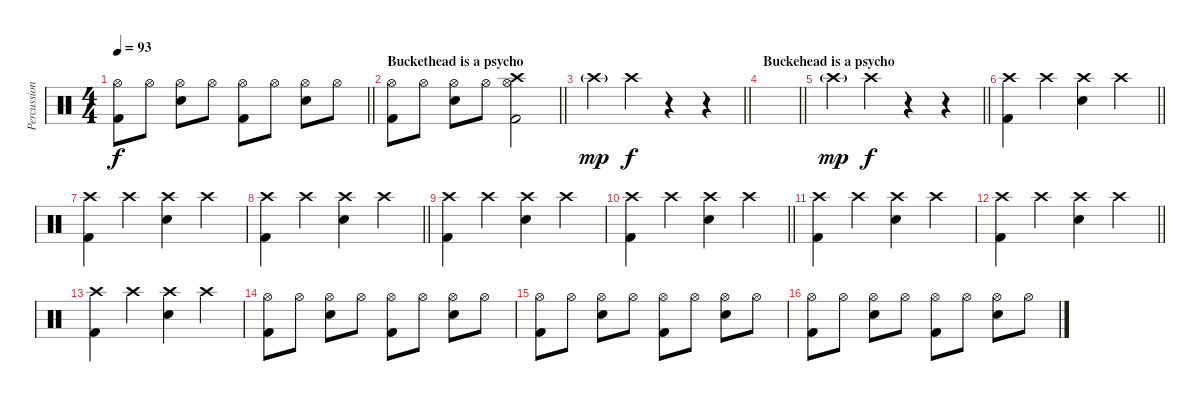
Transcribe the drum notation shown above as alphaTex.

\track ("Percussion" "Percussion") {instrument percussion}
\staff {score}
\articulation defaults
\ts (4 4)
\tempo 93
\clef neutral
\barLineRight lightlight
\ks c
("Kick (hit) 2" "Hi-Hat (open)").8{dy f} "Hi-Hat (open)".8 ("Electric Snare (hit)" "Hi-Hat (open)").8 "Hi-Hat (open)".8 ("Kick (hit) 2" "Hi-Hat (open)").8 "Hi-Hat (open)".8 ("Electric Snare (hit)" "Hi-Hat (open)").8 "Hi-Hat (open)".8 |
\section ("" "Buckethead is a psycho")
\barLineRight lightlight
("Kick (hit) 2" "Hi-Hat (open)").8 "Hi-Hat (open)".8 ("Electric Snare (hit)" "Hi-Hat (open)").8 "Hi-Hat (open)".8 ("Kick (hit) 2" "Crash high (hit)" "Hi-Hat (open)").2 |
\section ("" "")
\barLineRight lightlight "Crash high (hit)"{g}.4{dy mp} "Crash high (hit)".4{dy f}
r.4 r.4 |
\section ("" "Buckehead is a psycho")
\barLineRight lightlight
|
\section ("" "")
\barLineRight lightlight "Crash high (hit)"{g}.4{dy mp} "Crash high (hit)".4{dy f}
r.4 r.4 |
\barLineRight lightlight
("Kick (hit) 2" "Crash high (hit)").4 "Crash high (hit)".4 ("Electric Snare (hit)" "Crash high (hit)").4 "Crash high (hit)".4 |
("Kick (hit) 2" "Crash high (hit)").4 "Crash high (hit)".4 ("Electric Snare (hit)" "Crash high (hit)").4 "Crash high (hit)".4 |
\barLineRight lightlight
("Kick (hit) 2" "Crash high (hit)").4 "Crash high (hit)".4 ("Electric Snare (hit)" "Crash high (hit)").4 "Crash high (hit)".4 |
("Kick (hit) 2" "Crash high (hit)").4 "Crash high (hit)".4 ("Electric Snare (hit)" "Crash high (hit)").4 "Crash high (hit)".4 |
\barLineRight lightlight
("Kick (hit) 2" "Crash high (hit)").4 "Crash high (hit)".4 ("Electric Snare (hit)" "Crash high (hit)").4 "Crash high (hit)".4 |
("Kick (hit) 2" "Crash high (hit)").4 "Crash high (hit)".4 ("Electric Snare (hit)" "Crash high (hit)").4 "Crash high (hit)".4 |
\barLineRight lightlight
("Kick (hit) 2" "Crash high (hit)").4 "Crash high (hit)".4 ("Electric Snare (hit)" "Crash high (hit)").4 "Crash high (hit)".4 |
("Kick (hit) 2" "Crash high (hit)").4 "Crash high (hit)".4 ("Electric Snare (hit)" "Crash high (hit)").4 "Crash high (hit)".4 |
("Kick (hit) 2" "Hi-Hat (open)").8 "Hi-Hat (open)".8 ("Electric Snare (hit)" "Hi-Hat (open)").8 "Hi-Hat (open)".8 ("Kick (hit) 2" "Hi-Hat (open)").8 "Hi-Hat (open)".8 ("Electric Snare (hit)" "Hi-Hat (open)").8 "Hi-Hat (open)".8 |
("Kick (hit) 2" "Hi-Hat (open)").8 "Hi-Hat (open)".8 ("Electric Snare (hit)" "Hi-Hat (open)").8 "Hi-Hat (open)".8 ("Kick (hit) 2" "Hi-Hat (open)").8 "Hi-Hat (open)".8 ("Electric Snare (hit)" "Hi-Hat (open)").8 "Hi-Hat (open)".8 |
("Kick (hit) 2" "Hi-Hat (open)").8 "Hi-Hat (open)".8 ("Electric Snare (hit)" "Hi-Hat (open)").8 "Hi-Hat (open)".8 ("Kick (hit) 2" "Hi-Hat (open)").8 "Hi-Hat (open)".8 ("Electric Snare (hit)" "Hi-Hat (open)").8 "Hi-Hat (open)".8
